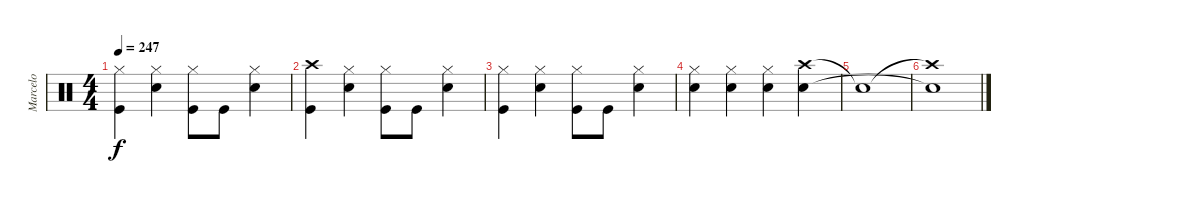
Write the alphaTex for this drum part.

\track ("Marcelo" "Marcelo") {instrument percussion}
\staff {score}
\articulation defaults
\ts (4 4)
\tempo 247
\clef neutral
\ks c
("Hi-Hat (closed)" "Kick (hit)").4{dy f} ("Hi-Hat (closed)" "Snare (hit) 2").4 ("Hi-Hat (closed)" "Kick (hit)").8 "Kick (hit)".8 ("Hi-Hat (closed)" "Snare (hit) 2").4 |
("Crash high (hit)" "Kick (hit)").4 ("Hi-Hat (closed)" "Snare (hit) 2").4 ("Hi-Hat (closed)" "Kick (hit)").8 "Kick (hit)".8 ("Hi-Hat (closed)" "Snare (hit) 2").4 |
("Hi-Hat (closed)" "Kick (hit)").4 ("Hi-Hat (closed)" "Snare (hit) 2").4 ("Hi-Hat (closed)" "Kick (hit)").8 "Kick (hit)".8 ("Hi-Hat (closed)" "Snare (hit) 2").4 |
("Hi-Hat (closed)" "Snare (hit) 2").4 ("Hi-Hat (closed)" "Snare (hit) 2").4 ("Hi-Hat (closed)" "Snare (hit) 2").4 ("Crash high (hit)" "Snare (hit) 2").4 |
"Snare (hit) 2"{t}.1 |
("Crash high (hit)"{t} "Snare (hit) 2"{t}).1
